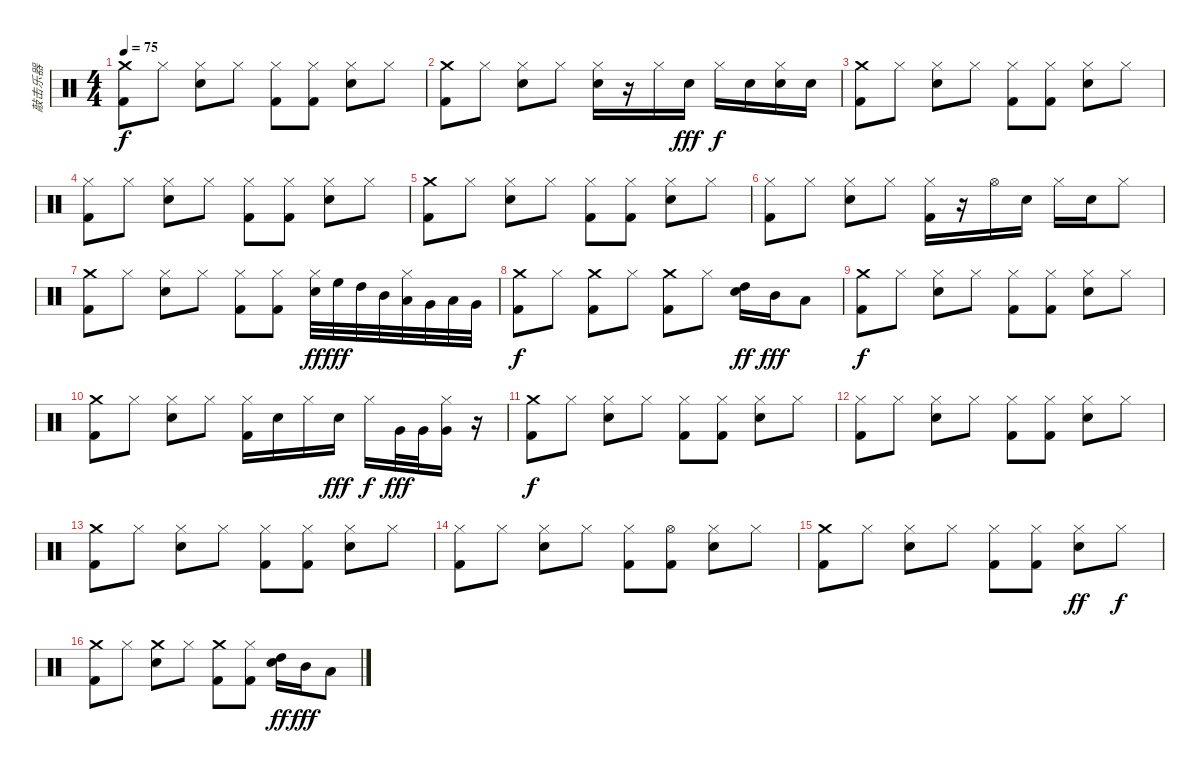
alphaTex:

\track ("敲击乐器" "敲击乐器") {instrument percussion}
\staff {score}
\articulation defaults
\ts (4 4)
\tempo 75
\clef neutral
\ks c
("Crash medium (hit)" "Kick (hit) 2").8{dy f} "Hi-Hat (closed)".8 ("Hi-Hat (closed)" "Electric Snare (hit)").8 "Hi-Hat (closed)".8 ("Hi-Hat (closed)" "Kick (hit) 2").8 ("Hi-Hat (closed)" "Kick (hit) 2").8 ("Hi-Hat (closed)" "Electric Snare (hit)").8 "Hi-Hat (closed)".8 |
("Crash medium (hit)" "Kick (hit) 2").8 "Hi-Hat (closed)".8 ("Hi-Hat (closed)" "Electric Snare (hit)").8 "Hi-Hat (closed)".8 ("Hi-Hat (closed)" "Electric Snare (hit)").16 r.16 "Hi-Hat (closed)".16 "Electric Snare (hit)".16{dy fff} "Hi-Hat (closed)".16{dy f} "Electric Snare (hit)".16 ("Hi-Hat (closed)" "Electric Snare (hit)").16 "Electric Snare (hit)".16 |
("Crash medium (hit)" "Kick (hit) 2").8 "Hi-Hat (closed)".8 ("Hi-Hat (closed)" "Electric Snare (hit)").8 "Hi-Hat (closed)".8 ("Hi-Hat (closed)" "Kick (hit) 2").8 ("Hi-Hat (closed)" "Kick (hit) 2").8 ("Hi-Hat (closed)" "Electric Snare (hit)").8 "Hi-Hat (closed)".8 |
("Hi-Hat (closed)" "Kick (hit) 2").8 "Hi-Hat (closed)".8 ("Hi-Hat (closed)" "Electric Snare (hit)").8 "Hi-Hat (closed)".8 ("Hi-Hat (closed)" "Kick (hit) 2").8 ("Hi-Hat (closed)" "Kick (hit) 2").8 ("Hi-Hat (closed)" "Electric Snare (hit)").8 "Hi-Hat (closed)".8 |
("Crash medium (hit)" "Kick (hit) 2").8 "Hi-Hat (closed)".8 ("Hi-Hat (closed)" "Electric Snare (hit)").8 "Hi-Hat (closed)".8 ("Hi-Hat (closed)" "Kick (hit) 2").8 ("Hi-Hat (closed)" "Kick (hit) 2").8 ("Hi-Hat (closed)" "Electric Snare (hit)").8 "Hi-Hat (closed)".8 |
("Hi-Hat (closed)" "Kick (hit) 2").8 "Hi-Hat (closed)".8 ("Hi-Hat (closed)" "Electric Snare (hit)").8 "Hi-Hat (closed)".8 ("Hi-Hat (closed)" "Kick (hit) 2").16 r.16 "Hi-Hat (open)".16 "Electric Snare (hit)".16 "Hi-Hat (closed)".16 "Electric Snare (hit)".16 "Hi-Hat (closed)".8 |
("Crash medium (hit)" "Kick (hit) 2").8 "Hi-Hat (closed)".8 ("Hi-Hat (closed)" "Electric Snare (hit)").8 "Hi-Hat (closed)".8 ("Hi-Hat (closed)" "Kick (hit) 2").8 ("Hi-Hat (closed)" "Kick (hit) 2").8 ("Hi-Hat (closed)" "Electric Snare (hit)").32{dy ff} "High Floor Tom (hit)".32{dy fff} "High Tom (hit)".32 "Mid Tom (hit)".32 ("Hi-Hat (closed)" "Low Tom (hit)").32 "Very Low Tom (hit)".32 "Low Floor Tom (hit)".32 "Very Low Tom (hit)".32 |
("Crash medium (hit)" "Kick (hit) 2").8{dy f} "Hi-Hat (closed)".8 ("Crash medium (hit)" "Kick (hit) 2").8 "Hi-Hat (closed)".8 ("Crash medium (hit)" "Kick (hit) 2").8 "Hi-Hat (closed)".8 ("High Tom (hit)" "Electric Snare (hit)").16{dy ff} "Mid Tom (hit)".16{dy fff} "Low Tom (hit)".8 |
("Crash medium (hit)" "Kick (hit) 2").8{dy f} "Hi-Hat (closed)".8 ("Hi-Hat (closed)" "Electric Snare (hit)").8 "Hi-Hat (closed)".8 ("Hi-Hat (closed)" "Kick (hit) 2").8 ("Hi-Hat (closed)" "Kick (hit) 2").8 ("Hi-Hat (closed)" "Electric Snare (hit)").8 "Hi-Hat (closed)".8 |
("Crash medium (hit)" "Kick (hit) 2").8 "Hi-Hat (closed)".8 ("Hi-Hat (closed)" "Electric Snare (hit)").8 "Hi-Hat (closed)".8 ("Hi-Hat (closed)" "Kick (hit) 2").16 "Electric Snare (hit)".16 "Hi-Hat (closed)".16 "Electric Snare (hit)".16{dy fff} "Hi-Hat (closed)".16{dy f} "Very Low Tom (hit)".32{dy fff} "Very Low Tom (hit)".32 ("Hi-Hat (closed)" "Very Low Tom (hit)").16 r.16 |
("Crash medium (hit)" "Kick (hit) 2").8{dy f} "Hi-Hat (closed)".8 ("Hi-Hat (closed)" "Electric Snare (hit)").8 "Hi-Hat (closed)".8 ("Hi-Hat (closed)" "Kick (hit) 2").8 ("Hi-Hat (closed)" "Kick (hit) 2").8 ("Hi-Hat (closed)" "Electric Snare (hit)").8 "Hi-Hat (closed)".8 |
("Hi-Hat (closed)" "Kick (hit) 2").8 "Hi-Hat (closed)".8 ("Hi-Hat (closed)" "Electric Snare (hit)").8 "Hi-Hat (closed)".8 ("Hi-Hat (closed)" "Kick (hit) 2").8 ("Hi-Hat (closed)" "Kick (hit) 2").8 ("Hi-Hat (closed)" "Electric Snare (hit)").8 "Hi-Hat (closed)".8 |
("Crash medium (hit)" "Kick (hit) 2").8 "Hi-Hat (closed)".8 ("Hi-Hat (closed)" "Electric Snare (hit)").8 "Hi-Hat (closed)".8 ("Hi-Hat (closed)" "Kick (hit) 2").8 ("Hi-Hat (closed)" "Kick (hit) 2").8 ("Hi-Hat (closed)" "Electric Snare (hit)").8 "Hi-Hat (closed)".8 |
("Hi-Hat (closed)" "Kick (hit) 2").8 "Hi-Hat (closed)".8 ("Hi-Hat (closed)" "Electric Snare (hit)").8 "Hi-Hat (closed)".8 ("Hi-Hat (closed)" "Kick (hit) 2").8 ("Hi-Hat (open)" "Kick (hit) 2").8 ("Hi-Hat (closed)" "Electric Snare (hit)").8 "Hi-Hat (closed)".8 |
("Crash medium (hit)" "Kick (hit) 2").8 "Hi-Hat (closed)".8 ("Hi-Hat (closed)" "Electric Snare (hit)").8 "Hi-Hat (closed)".8 ("Hi-Hat (closed)" "Kick (hit) 2").8 ("Hi-Hat (closed)" "Kick (hit) 2").8 ("Hi-Hat (closed)" "Electric Snare (hit)").8{dy ff} "Hi-Hat (closed)".8{dy f} |
("Crash medium (hit)" "Kick (hit) 2").8 "Hi-Hat (closed)".8 ("Crash medium (hit)" "Electric Snare (hit)").8 "Hi-Hat (closed)".8 ("Crash medium (hit)" "Kick (hit) 2").8 ("Hi-Hat (closed)" "Kick (hit) 2").8 ("High Tom (hit)" "Electric Snare (hit)").16{dy ff} "Mid Tom (hit)".16{dy fff} "Low Tom (hit)".8
